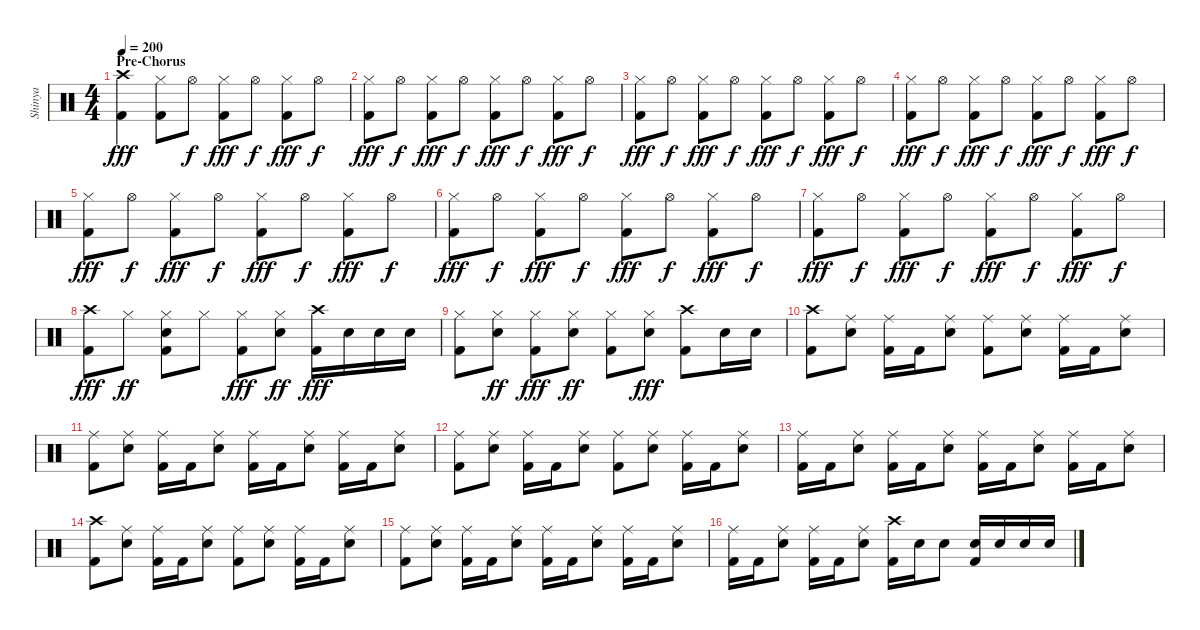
\track ("Shinya" "Shinya") {instrument percussion}
\staff {score}
\articulation defaults
\ts (4 4)
\section ("" "Pre-Chorus")
\tempo 200
\clef neutral
\ks c
("Kick (hit) 2" "Crash high (hit)").4{dy fff} ("Hi-Hat (closed)" "Kick (hit) 2").8 "Hi-Hat (open)".8{dy f} ("Hi-Hat (closed)" "Kick (hit) 2").8{dy fff} "Hi-Hat (open)".8{dy f} ("Hi-Hat (closed)" "Kick (hit) 2").8{dy fff} "Hi-Hat (open)".8{dy f} |
("Hi-Hat (closed)" "Kick (hit) 2").8{dy fff} "Hi-Hat (open)".8{dy f} ("Hi-Hat (closed)" "Kick (hit) 2").8{dy fff} "Hi-Hat (open)".8{dy f} ("Hi-Hat (closed)" "Kick (hit) 2").8{dy fff} "Hi-Hat (open)".8{dy f} ("Hi-Hat (closed)" "Kick (hit) 2").8{dy fff} "Hi-Hat (open)".8{dy f} |
("Hi-Hat (closed)" "Kick (hit) 2").8{dy fff} "Hi-Hat (open)".8{dy f} ("Hi-Hat (closed)" "Kick (hit) 2").8{dy fff} "Hi-Hat (open)".8{dy f} ("Hi-Hat (closed)" "Kick (hit) 2").8{dy fff} "Hi-Hat (open)".8{dy f} ("Hi-Hat (closed)" "Kick (hit) 2").8{dy fff} "Hi-Hat (open)".8{dy f} |
("Hi-Hat (closed)" "Kick (hit) 2").8{dy fff} "Hi-Hat (open)".8{dy f} ("Hi-Hat (closed)" "Kick (hit) 2").8{dy fff} "Hi-Hat (open)".8{dy f} ("Hi-Hat (closed)" "Kick (hit) 2").8{dy fff} "Hi-Hat (open)".8{dy f} ("Hi-Hat (closed)" "Kick (hit) 2").8{dy fff} "Hi-Hat (open)".8{dy f} |
("Hi-Hat (closed)" "Kick (hit) 2").8{dy fff} "Hi-Hat (open)".8{dy f} ("Hi-Hat (closed)" "Kick (hit) 2").8{dy fff} "Hi-Hat (open)".8{dy f} ("Hi-Hat (closed)" "Kick (hit) 2").8{dy fff} "Hi-Hat (open)".8{dy f} ("Hi-Hat (closed)" "Kick (hit) 2").8{dy fff} "Hi-Hat (open)".8{dy f} |
("Hi-Hat (closed)" "Kick (hit) 2").8{dy fff} "Hi-Hat (open)".8{dy f} ("Hi-Hat (closed)" "Kick (hit) 2").8{dy fff} "Hi-Hat (open)".8{dy f} ("Hi-Hat (closed)" "Kick (hit) 2").8{dy fff} "Hi-Hat (open)".8{dy f} ("Hi-Hat (closed)" "Kick (hit) 2").8{dy fff} "Hi-Hat (open)".8{dy f} |
("Hi-Hat (closed)" "Kick (hit) 2").8{dy fff} "Hi-Hat (open)".8{dy f} ("Hi-Hat (closed)" "Kick (hit) 2").8{dy fff} "Hi-Hat (open)".8{dy f} ("Hi-Hat (closed)" "Kick (hit) 2").8{dy fff} "Hi-Hat (open)".8{dy f} ("Hi-Hat (closed)" "Kick (hit) 2").8{dy fff} "Hi-Hat (open)".8{dy f} |
("Crash high (hit)" "Kick (hit) 2").8{dy fff} "Hi-Hat (closed)".8{dy ff} ("Kick (hit) 2" "Snare (hit) 2" "Hi-Hat (closed)").8 "Hi-Hat (closed)".8 ("Hi-Hat (closed)" "Kick (hit) 2").8{dy fff} ("Snare (hit) 2" "Hi-Hat (closed)").8{dy ff} ("Crash high (hit)" "Kick (hit) 2").16{dy fff} "Snare (hit) 2".16 "Snare (hit) 2".16 "Snare (hit) 2".16 |
("Hi-Hat (closed)" "Kick (hit) 2").8 ("Snare (hit) 2" "Hi-Hat (closed)").8{dy ff} ("Hi-Hat (closed)" "Kick (hit) 2").8{dy fff} ("Snare (hit) 2" "Hi-Hat (closed)").8{dy ff} ("Kick (hit) 2" "Hi-Hat (closed)").8 ("Hi-Hat (closed)" "Snare (hit) 2").8{dy fff} ("Crash high (hit)" "Kick (hit) 2").8 "Snare (hit) 2".16 "Snare (hit) 2".16 |
("Kick (hit) 2" "Crash high (hit)").8 ("Snare (hit) 2" "Ride (middle)").8 ("Ride (middle)" "Kick (hit) 2").16 "Kick (hit) 2".16 ("Snare (hit) 2" "Ride (middle)").8 ("Ride (middle)" "Kick (hit) 2").8 ("Snare (hit) 2" "Ride (middle)").8 ("Ride (middle)" "Kick (hit) 2").16 "Kick (hit) 2".16 ("Snare (hit) 2" "Ride (middle)").8 |
("Ride (middle)" "Kick (hit) 2").8 ("Snare (hit) 2" "Ride (middle)").8 ("Ride (middle)" "Kick (hit) 2").16 "Kick (hit) 2".16 ("Snare (hit) 2" "Ride (middle)").8 ("Ride (middle)" "Kick (hit) 2").16 "Kick (hit) 2".16 ("Snare (hit) 2" "Ride (middle)").8 ("Ride (middle)" "Kick (hit) 2").16 "Kick (hit) 2".16 ("Snare (hit) 2" "Ride (middle)").8 |
("Ride (middle)" "Kick (hit) 2").8 ("Snare (hit) 2" "Ride (middle)").8 ("Ride (middle)" "Kick (hit) 2").16 "Kick (hit) 2".16 ("Snare (hit) 2" "Ride (middle)").8 ("Ride (middle)" "Kick (hit) 2").8 ("Snare (hit) 2" "Ride (middle)").8 ("Ride (middle)" "Kick (hit) 2").16 "Kick (hit) 2".16 ("Snare (hit) 2" "Ride (middle)").8 |
("Ride (middle)" "Kick (hit) 2").16 "Kick (hit) 2".16 ("Snare (hit) 2" "Ride (middle)").8 ("Ride (middle)" "Kick (hit) 2").16 "Kick (hit) 2".16 ("Snare (hit) 2" "Ride (middle)").8 ("Ride (middle)" "Kick (hit) 2").16 "Kick (hit) 2".16 ("Snare (hit) 2" "Ride (middle)").8 ("Ride (middle)" "Kick (hit) 2").16 "Kick (hit) 2".16 ("Snare (hit) 2" "Ride (middle)").8 |
("Kick (hit) 2" "Crash high (hit)").8 ("Snare (hit) 2" "Ride (middle)").8 ("Ride (middle)" "Kick (hit) 2").16 "Kick (hit) 2".16 ("Snare (hit) 2" "Ride (middle)").8 ("Ride (middle)" "Kick (hit) 2").8 ("Snare (hit) 2" "Ride (middle)").8 ("Ride (middle)" "Kick (hit) 2").16 "Kick (hit) 2".16 ("Snare (hit) 2" "Ride (middle)").8 |
("Ride (middle)" "Kick (hit) 2").8 ("Snare (hit) 2" "Ride (middle)").8 ("Ride (middle)" "Kick (hit) 2").16 "Kick (hit) 2".16 ("Snare (hit) 2" "Ride (middle)").8 ("Ride (middle)" "Kick (hit) 2").16 "Kick (hit) 2".16 ("Snare (hit) 2" "Ride (middle)").8 ("Ride (middle)" "Kick (hit) 2").16 "Kick (hit) 2".16 ("Snare (hit) 2" "Ride (middle)").8 |
("Ride (middle)" "Kick (hit) 2").16 "Kick (hit) 2".16 ("Snare (hit) 2" "Ride (middle)").8 ("Ride (middle)" "Kick (hit) 2").16 "Kick (hit) 2".16 ("Snare (hit) 2" "Ride (middle)").8 ("Crash high (hit)" "Kick (hit) 2").16 "Snare (hit) 2".16 "Snare (hit) 2".8 ("Snare (hit) 2" "Kick (hit) 2").16 "Snare (hit) 2".16 "Snare (hit) 2".16 "Snare (hit) 2".16
